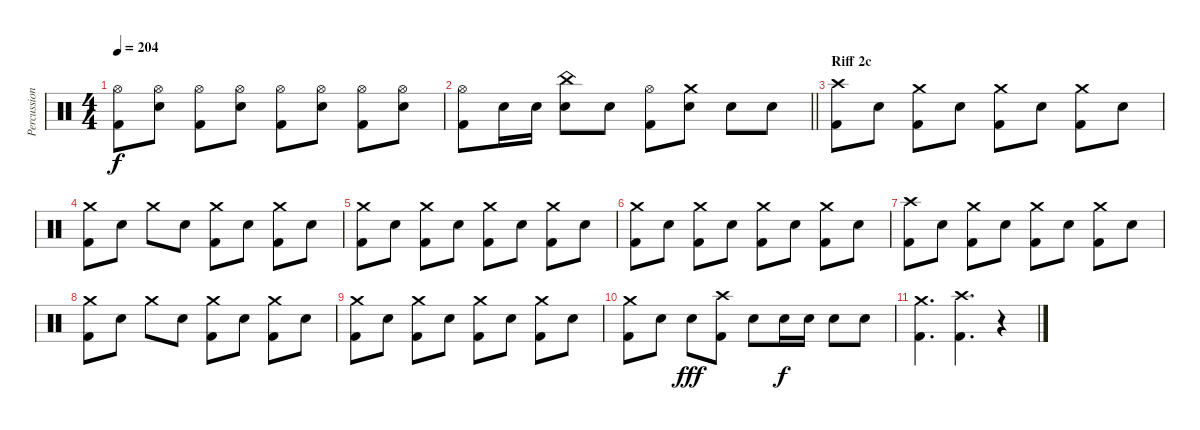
\track ("Percussions" "Percussion") {instrument percussion}
\staff {score}
\articulation defaults
\ts (4 4)
\tempo 204
\clef neutral
\ks c
("Hi-Hat (open)" "Kick (hit) 2").8{dy f} ("Hi-Hat (open)" "Electric Snare (hit)").8 ("Hi-Hat (open)" "Kick (hit) 2").8 ("Hi-Hat (open)" "Electric Snare (hit)").8 ("Hi-Hat (open)" "Kick (hit) 2").8 ("Hi-Hat (open)" "Electric Snare (hit)").8 ("Hi-Hat (open)" "Kick (hit) 2").8 ("Hi-Hat (open)" "Electric Snare (hit)").8 |
\barLineRight lightlight
("Hi-Hat (open)" "Kick (hit) 2").8 "Electric Snare (hit)".16 "Electric Snare (hit)".16 ("China (hit)" "Electric Snare (hit)").8 "Electric Snare (hit)".8 ("Hi-Hat (open)" "Kick (hit) 2").8 ("Crash medium (hit)" "Electric Snare (hit)").8 "Electric Snare (hit)".8 "Electric Snare (hit)".8 |
\section ("" "Riff 2c")
("Crash high (hit)" "Kick (hit) 2").8 "Electric Snare (hit)".8 ("Crash medium (hit)" "Kick (hit) 2").8 "Electric Snare (hit)".8 ("Crash medium (hit)" "Kick (hit) 2").8 "Electric Snare (hit)".8 ("Crash medium (hit)" "Kick (hit) 2").8 "Electric Snare (hit)".8 |
("Crash medium (hit)" "Kick (hit) 2").8 "Electric Snare (hit)".8 "Crash medium (hit)".8 "Electric Snare (hit)".8 ("Crash medium (hit)" "Kick (hit) 2").8 "Electric Snare (hit)".8 ("Crash medium (hit)" "Kick (hit) 2").8 "Electric Snare (hit)".8 |
("Crash medium (hit)" "Kick (hit) 2").8 "Electric Snare (hit)".8 ("Crash medium (hit)" "Kick (hit) 2").8 "Electric Snare (hit)".8 ("Crash medium (hit)" "Kick (hit) 2").8 "Electric Snare (hit)".8 ("Crash medium (hit)" "Kick (hit) 2").8 "Electric Snare (hit)".8 |
("Crash medium (hit)" "Kick (hit) 2").8 "Electric Snare (hit)".8 ("Crash medium (hit)" "Kick (hit) 2").8 "Electric Snare (hit)".8 ("Crash medium (hit)" "Kick (hit) 2").8 "Electric Snare (hit)".8 ("Crash medium (hit)" "Kick (hit) 2").8 "Electric Snare (hit)".8 |
("Crash high (hit)" "Kick (hit) 2").8 "Electric Snare (hit)".8 ("Crash medium (hit)" "Kick (hit) 2").8 "Electric Snare (hit)".8 ("Crash medium (hit)" "Kick (hit) 2").8 "Electric Snare (hit)".8 ("Crash medium (hit)" "Kick (hit) 2").8 "Electric Snare (hit)".8 |
("Crash medium (hit)" "Kick (hit) 2").8 "Electric Snare (hit)".8 "Crash medium (hit)".8 "Electric Snare (hit)".8 ("Crash medium (hit)" "Kick (hit) 2").8 "Electric Snare (hit)".8 ("Crash medium (hit)" "Kick (hit) 2").8 "Electric Snare (hit)".8 |
("Crash medium (hit)" "Kick (hit) 2").8 "Electric Snare (hit)".8 ("Crash medium (hit)" "Kick (hit) 2").8 "Electric Snare (hit)".8 ("Crash medium (hit)" "Kick (hit) 2").8 "Electric Snare (hit)".8 ("Crash medium (hit)" "Kick (hit) 2").8 "Electric Snare (hit)".8 |
("Crash medium (hit)" "Kick (hit) 2").8 "Electric Snare (hit)".8 "Electric Snare (hit)".8{dy fff} ("Crash high (hit)" "Kick (hit) 2").8 "Electric Snare (hit)".8 "Electric Snare (hit)".16{dy f} "Electric Snare (hit)".16 "Electric Snare (hit)".8 "Electric Snare (hit)".8 |
("Crash medium (hit)" "Kick (hit) 2").4{d} ("Crash high (hit)" "Kick (hit) 2").4{d} r.4
